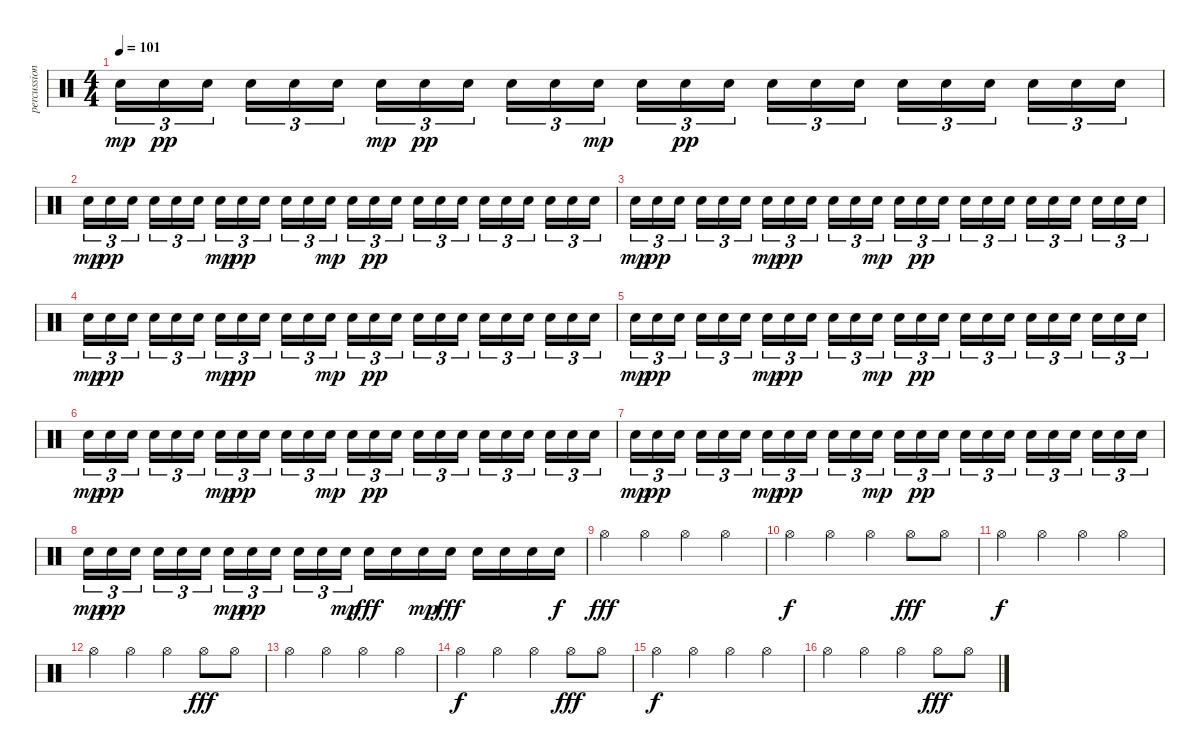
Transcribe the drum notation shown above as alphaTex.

\track ("percussion" "percussion") {instrument percussion}
\staff {score}
\articulation defaults
\ts (4 4)
\tempo 101
\clef neutral
\ks c "Electric Snare (hit)".16{tu (3 2) dy mp} "Electric Snare (hit)".16{tu (3 2) dy pp} "Electric Snare (hit)".16{tu (3 2)} "Electric Snare (hit)".16{tu (3 2)} "Electric Snare (hit)".16{tu (3 2)} "Electric Snare (hit)".16{tu (3 2)} "Electric Snare (hit)".16{tu (3 2) dy mp} "Electric Snare (hit)".16{tu (3 2) dy pp} "Electric Snare (hit)".16{tu (3 2)} "Electric Snare (hit)".16{tu (3 2)} "Electric Snare (hit)".16{tu (3 2)} "Electric Snare (hit)".16{tu (3 2) dy mp} "Electric Snare (hit)".16{tu (3 2)} "Electric Snare (hit)".16{tu (3 2) dy pp} "Electric Snare (hit)".16{tu (3 2)} "Electric Snare (hit)".16{tu (3 2)} "Electric Snare (hit)".16{tu (3 2)} "Electric Snare (hit)".16{tu (3 2)} "Electric Snare (hit)".16{tu (3 2)} "Electric Snare (hit)".16{tu (3 2)} "Electric Snare (hit)".16{tu (3 2)} "Electric Snare (hit)".16{tu (3 2)} "Electric Snare (hit)".16{tu (3 2)} "Electric Snare (hit)".16{tu (3 2)}
|
"Electric Snare (hit)".16{tu (3 2) dy mp} "Electric Snare (hit)".16{tu (3 2) dy pp} "Electric Snare (hit)".16{tu (3 2)} "Electric Snare (hit)".16{tu (3 2)} "Electric Snare (hit)".16{tu (3 2)} "Electric Snare (hit)".16{tu (3 2)} "Electric Snare (hit)".16{tu (3 2) dy mp} "Electric Snare (hit)".16{tu (3 2) dy pp} "Electric Snare (hit)".16{tu (3 2)} "Electric Snare (hit)".16{tu (3 2)} "Electric Snare (hit)".16{tu (3 2)} "Electric Snare (hit)".16{tu (3 2) dy mp} "Electric Snare (hit)".16{tu (3 2)} "Electric Snare (hit)".16{tu (3 2) dy pp} "Electric Snare (hit)".16{tu (3 2)} "Electric Snare (hit)".16{tu (3 2)} "Electric Snare (hit)".16{tu (3 2)} "Electric Snare (hit)".16{tu (3 2)} "Electric Snare (hit)".16{tu (3 2)} "Electric Snare (hit)".16{tu (3 2)} "Electric Snare (hit)".16{tu (3 2)} "Electric Snare (hit)".16{tu (3 2)} "Electric Snare (hit)".16{tu (3 2)} "Electric Snare (hit)".16{tu (3 2)} |
"Electric Snare (hit)".16{tu (3 2) dy mp} "Electric Snare (hit)".16{tu (3 2) dy pp} "Electric Snare (hit)".16{tu (3 2)} "Electric Snare (hit)".16{tu (3 2)} "Electric Snare (hit)".16{tu (3 2)} "Electric Snare (hit)".16{tu (3 2)} "Electric Snare (hit)".16{tu (3 2) dy mp} "Electric Snare (hit)".16{tu (3 2) dy pp} "Electric Snare (hit)".16{tu (3 2)} "Electric Snare (hit)".16{tu (3 2)} "Electric Snare (hit)".16{tu (3 2)} "Electric Snare (hit)".16{tu (3 2) dy mp} "Electric Snare (hit)".16{tu (3 2)} "Electric Snare (hit)".16{tu (3 2) dy pp} "Electric Snare (hit)".16{tu (3 2)} "Electric Snare (hit)".16{tu (3 2)} "Electric Snare (hit)".16{tu (3 2)} "Electric Snare (hit)".16{tu (3 2)} "Electric Snare (hit)".16{tu (3 2)} "Electric Snare (hit)".16{tu (3 2)} "Electric Snare (hit)".16{tu (3 2)} "Electric Snare (hit)".16{tu (3 2)} "Electric Snare (hit)".16{tu (3 2)} "Electric Snare (hit)".16{tu (3 2)} |
"Electric Snare (hit)".16{tu (3 2) dy mp} "Electric Snare (hit)".16{tu (3 2) dy pp} "Electric Snare (hit)".16{tu (3 2)} "Electric Snare (hit)".16{tu (3 2)} "Electric Snare (hit)".16{tu (3 2)} "Electric Snare (hit)".16{tu (3 2)} "Electric Snare (hit)".16{tu (3 2) dy mp} "Electric Snare (hit)".16{tu (3 2) dy pp} "Electric Snare (hit)".16{tu (3 2)} "Electric Snare (hit)".16{tu (3 2)} "Electric Snare (hit)".16{tu (3 2)} "Electric Snare (hit)".16{tu (3 2) dy mp} "Electric Snare (hit)".16{tu (3 2)} "Electric Snare (hit)".16{tu (3 2) dy pp} "Electric Snare (hit)".16{tu (3 2)} "Electric Snare (hit)".16{tu (3 2)} "Electric Snare (hit)".16{tu (3 2)} "Electric Snare (hit)".16{tu (3 2)} "Electric Snare (hit)".16{tu (3 2)} "Electric Snare (hit)".16{tu (3 2)} "Electric Snare (hit)".16{tu (3 2)} "Electric Snare (hit)".16{tu (3 2)} "Electric Snare (hit)".16{tu (3 2)} "Electric Snare (hit)".16{tu (3 2)} |
"Electric Snare (hit)".16{tu (3 2) dy mp} "Electric Snare (hit)".16{tu (3 2) dy pp} "Electric Snare (hit)".16{tu (3 2)} "Electric Snare (hit)".16{tu (3 2)} "Electric Snare (hit)".16{tu (3 2)} "Electric Snare (hit)".16{tu (3 2)} "Electric Snare (hit)".16{tu (3 2) dy mp} "Electric Snare (hit)".16{tu (3 2) dy pp} "Electric Snare (hit)".16{tu (3 2)} "Electric Snare (hit)".16{tu (3 2)} "Electric Snare (hit)".16{tu (3 2)} "Electric Snare (hit)".16{tu (3 2) dy mp} "Electric Snare (hit)".16{tu (3 2)} "Electric Snare (hit)".16{tu (3 2) dy pp} "Electric Snare (hit)".16{tu (3 2)} "Electric Snare (hit)".16{tu (3 2)} "Electric Snare (hit)".16{tu (3 2)} "Electric Snare (hit)".16{tu (3 2)} "Electric Snare (hit)".16{tu (3 2)} "Electric Snare (hit)".16{tu (3 2)} "Electric Snare (hit)".16{tu (3 2)} "Electric Snare (hit)".16{tu (3 2)} "Electric Snare (hit)".16{tu (3 2)} "Electric Snare (hit)".16{tu (3 2)} |
"Electric Snare (hit)".16{tu (3 2) dy mp} "Electric Snare (hit)".16{tu (3 2) dy pp} "Electric Snare (hit)".16{tu (3 2)} "Electric Snare (hit)".16{tu (3 2)} "Electric Snare (hit)".16{tu (3 2)} "Electric Snare (hit)".16{tu (3 2)} "Electric Snare (hit)".16{tu (3 2) dy mp} "Electric Snare (hit)".16{tu (3 2) dy pp} "Electric Snare (hit)".16{tu (3 2)} "Electric Snare (hit)".16{tu (3 2)} "Electric Snare (hit)".16{tu (3 2)} "Electric Snare (hit)".16{tu (3 2) dy mp} "Electric Snare (hit)".16{tu (3 2)} "Electric Snare (hit)".16{tu (3 2) dy pp} "Electric Snare (hit)".16{tu (3 2)} "Electric Snare (hit)".16{tu (3 2)} "Electric Snare (hit)".16{tu (3 2)} "Electric Snare (hit)".16{tu (3 2)} "Electric Snare (hit)".16{tu (3 2)} "Electric Snare (hit)".16{tu (3 2)} "Electric Snare (hit)".16{tu (3 2)} "Electric Snare (hit)".16{tu (3 2)} "Electric Snare (hit)".16{tu (3 2)} "Electric Snare (hit)".16{tu (3 2)} |
"Electric Snare (hit)".16{tu (3 2) dy mp} "Electric Snare (hit)".16{tu (3 2) dy pp} "Electric Snare (hit)".16{tu (3 2)} "Electric Snare (hit)".16{tu (3 2)} "Electric Snare (hit)".16{tu (3 2)} "Electric Snare (hit)".16{tu (3 2)} "Electric Snare (hit)".16{tu (3 2) dy mp} "Electric Snare (hit)".16{tu (3 2) dy pp} "Electric Snare (hit)".16{tu (3 2)} "Electric Snare (hit)".16{tu (3 2)} "Electric Snare (hit)".16{tu (3 2)} "Electric Snare (hit)".16{tu (3 2) dy mp} "Electric Snare (hit)".16{tu (3 2)} "Electric Snare (hit)".16{tu (3 2) dy pp} "Electric Snare (hit)".16{tu (3 2)} "Electric Snare (hit)".16{tu (3 2)} "Electric Snare (hit)".16{tu (3 2)} "Electric Snare (hit)".16{tu (3 2)} "Electric Snare (hit)".16{tu (3 2)} "Electric Snare (hit)".16{tu (3 2)} "Electric Snare (hit)".16{tu (3 2)} "Electric Snare (hit)".16{tu (3 2)} "Electric Snare (hit)".16{tu (3 2)} "Electric Snare (hit)".16{tu (3 2)} |
"Electric Snare (hit)".16{tu (3 2) dy mp} "Electric Snare (hit)".16{tu (3 2) dy pp} "Electric Snare (hit)".16{tu (3 2)} "Electric Snare (hit)".16{tu (3 2)} "Electric Snare (hit)".16{tu (3 2)} "Electric Snare (hit)".16{tu (3 2)} "Electric Snare (hit)".16{tu (3 2) dy mp} "Electric Snare (hit)".16{tu (3 2) dy pp} "Electric Snare (hit)".16{tu (3 2)} "Electric Snare (hit)".16{tu (3 2)} "Electric Snare (hit)".16{tu (3 2)} "Electric Snare (hit)".16{tu (3 2) dy mp} "Electric Snare (hit)".16{dy fff} "Electric Snare (hit)".16 "Electric Snare (hit)".16{dy mp} "Electric Snare (hit)".16{dy fff} "Electric Snare (hit)".16 "Electric Snare (hit)".16 "Electric Snare (hit)".16 "Electric Snare (hit)".16{dy f} |
"Hi-Hat (open)".4{dy fff} "Hi-Hat (open)".4 "Hi-Hat (open)".4 "Hi-Hat (open)".4 |
"Hi-Hat (open)".4{dy f} "Hi-Hat (open)".4 "Hi-Hat (open)".4 "Hi-Hat (open)".8{dy fff} "Hi-Hat (open)".8 |
"Hi-Hat (open)".4{dy f} "Hi-Hat (open)".4 "Hi-Hat (open)".4 "Hi-Hat (open)".4 |
"Hi-Hat (open)".4 "Hi-Hat (open)".4 "Hi-Hat (open)".4 "Hi-Hat (open)".8{dy fff} "Hi-Hat (open)".8 |
"Hi-Hat (open)".4 "Hi-Hat (open)".4 "Hi-Hat (open)".4 "Hi-Hat (open)".4 |
"Hi-Hat (open)".4{dy f} "Hi-Hat (open)".4 "Hi-Hat (open)".4 "Hi-Hat (open)".8{dy fff} "Hi-Hat (open)".8 |
"Hi-Hat (open)".4{dy f} "Hi-Hat (open)".4 "Hi-Hat (open)".4 "Hi-Hat (open)".4 |
"Hi-Hat (open)".4 "Hi-Hat (open)".4 "Hi-Hat (open)".4 "Hi-Hat (open)".8{dy fff} "Hi-Hat (open)".8
